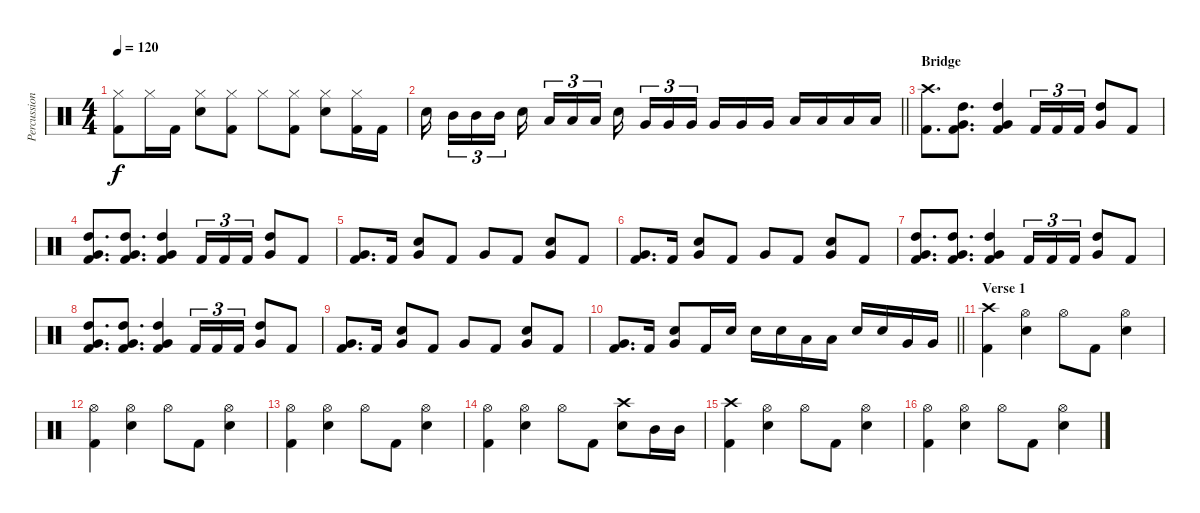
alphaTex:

\track ("Percussion" "Percussion") {instrument percussion}
\staff {score}
\articulation defaults
\ts (4 4)
\tempo 120
\clef neutral
\ks c
("Hi-Hat (closed)" "Kick (hit) 2").8{dy f} "Hi-Hat (closed)".16 "Kick (hit) 2".16 ("Hi-Hat (closed)" "Snare (hit) 2").8 ("Hi-Hat (closed)" "Kick (hit) 2").8 "Hi-Hat (closed)".8 ("Hi-Hat (closed)" "Kick (hit) 2").8 ("Hi-Hat (closed)" "Snare (hit) 2").8 ("Hi-Hat (closed)" "Kick (hit) 2").16 "Kick (hit) 2".16 |
\barLineRight lightlight "Snare (hit) 2".16{beam splitsecondary} "Mid Tom (hit)".16{tu (3 2)} "Mid Tom (hit)".16{tu (3 2)} "Mid Tom (hit)".16{tu (3 2) beam splitsecondary} "Snare (hit) 2".16 "Low Tom (hit)".16{tu (3 2)} "Low Tom (hit)".16{tu (3 2)} "Low Tom (hit)".16{tu (3 2) beam splitsecondary} "Snare (hit) 2".16{beam splitsecondary} "Very Low Tom (hit)".16{tu (3 2)} "Very Low Tom (hit)".16{tu (3 2)} "Very Low Tom (hit)".16{tu (3 2) beam splitsecondary} "Very Low Tom (hit)".16 "Very Low Tom (hit)".16 "Very Low Tom (hit)".16 "Low Floor Tom (hit)".16 "Low Floor Tom (hit)".16 "Low Floor Tom (hit)".16 "Low Floor Tom (hit)".16
|
\section ("" "Bridge")
("Crash high (hit)" "Kick (hit) 2").8{d} ("High Tom (hit)" "Very Low Tom (hit)" "Kick (hit) 2").8{d} ("High Tom (hit)" "Very Low Tom (hit)" "Kick (hit) 2").4 "Kick (hit) 2".16{tu (3 2)} "Kick (hit) 2".16{tu (3 2)} "Kick (hit) 2".16{tu (3 2)} ("High Tom (hit)" "Very Low Tom (hit)").8 "Kick (hit) 2".8 |
("High Tom (hit)" "Very Low Tom (hit)" "Kick (hit) 2").8{d} ("High Tom (hit)" "Very Low Tom (hit)" "Kick (hit) 2").8{d} ("High Tom (hit)" "Very Low Tom (hit)" "Kick (hit) 2").4 "Kick (hit) 2".16{tu (3 2)} "Kick (hit) 2".16{tu (3 2)} "Kick (hit) 2".16{tu (3 2)} ("High Tom (hit)" "Very Low Tom (hit)").8 "Kick (hit) 2".8 |
("Very Low Tom (hit)" "Kick (hit) 2").8{d} "Kick (hit) 2".16 ("Very Low Tom (hit)" "Snare (hit) 2").8 "Kick (hit) 2".8 "Very Low Tom (hit)".8 "Kick (hit) 2".8 ("Very Low Tom (hit)" "Snare (hit) 2").8 "Kick (hit) 2".8 |
("Very Low Tom (hit)" "Kick (hit) 2").8{d} "Kick (hit) 2".16 ("Very Low Tom (hit)" "Snare (hit) 2").8 "Kick (hit) 2".8 "Very Low Tom (hit)".8 "Kick (hit) 2".8 ("Very Low Tom (hit)" "Snare (hit) 2").8 "Kick (hit) 2".8 |
("High Tom (hit)" "Very Low Tom (hit)" "Kick (hit) 2").8{d} ("High Tom (hit)" "Very Low Tom (hit)" "Kick (hit) 2").8{d} ("High Tom (hit)" "Very Low Tom (hit)" "Kick (hit) 2").4 "Kick (hit) 2".16{tu (3 2)} "Kick (hit) 2".16{tu (3 2)} "Kick (hit) 2".16{tu (3 2)} ("High Tom (hit)" "Very Low Tom (hit)").8 "Kick (hit) 2".8 |
("High Tom (hit)" "Very Low Tom (hit)" "Kick (hit) 2").8{d} ("High Tom (hit)" "Very Low Tom (hit)" "Kick (hit) 2").8{d} ("High Tom (hit)" "Very Low Tom (hit)" "Kick (hit) 2").4 "Kick (hit) 2".16{tu (3 2)} "Kick (hit) 2".16{tu (3 2)} "Kick (hit) 2".16{tu (3 2)} ("High Tom (hit)" "Very Low Tom (hit)").8 "Kick (hit) 2".8 |
("Very Low Tom (hit)" "Kick (hit) 2").8{d} "Kick (hit) 2".16 ("Very Low Tom (hit)" "Snare (hit) 2").8 "Kick (hit) 2".8 "Very Low Tom (hit)".8 "Kick (hit) 2".8 ("Very Low Tom (hit)" "Snare (hit) 2").8 "Kick (hit) 2".8 |
\barLineRight lightlight
("Very Low Tom (hit)" "Kick (hit) 2").8{d} "Kick (hit) 2".16 ("Very Low Tom (hit)" "Snare (hit) 2").8 "Kick (hit) 2".16 "Snare (hit) 2".16 "Snare (hit) 2".16 "Snare (hit) 2".16 "Low Tom (hit)".16 "Low Tom (hit)".16 "Snare (hit) 2".16 "Snare (hit) 2".16 "Very Low Tom (hit)".16 "Very Low Tom (hit)".16 |
\section ("" "Verse 1")
("Crash high (hit)" "Kick (hit) 2").4 ("Hi-Hat (open)" "Snare (hit) 2").4 "Hi-Hat (open)".8 "Kick (hit) 2".8 ("Hi-Hat (open)" "Snare (hit) 2").4 |
("Hi-Hat (open)" "Kick (hit) 2").4 ("Hi-Hat (open)" "Snare (hit) 2").4 "Hi-Hat (open)".8 "Kick (hit) 2".8 ("Hi-Hat (open)" "Snare (hit) 2").4 |
("Hi-Hat (open)" "Kick (hit) 2").4 ("Hi-Hat (open)" "Snare (hit) 2").4 "Hi-Hat (open)".8 "Kick (hit) 2".8 ("Hi-Hat (open)" "Snare (hit) 2").4 |
("Hi-Hat (open)" "Kick (hit) 2").4 ("Hi-Hat (open)" "Snare (hit) 2").4 "Hi-Hat (open)".8 "Kick (hit) 2".8 ("Crash high (hit)" "Snare (hit) 2").8 "Mid Tom (hit)".16 "Mid Tom (hit)".16 |
("Crash high (hit)" "Kick (hit) 2").4 ("Hi-Hat (open)" "Snare (hit) 2").4 "Hi-Hat (open)".8 "Kick (hit) 2".8 ("Hi-Hat (open)" "Snare (hit) 2").4 |
("Hi-Hat (open)" "Kick (hit) 2").4 ("Hi-Hat (open)" "Snare (hit) 2").4 "Hi-Hat (open)".8 "Kick (hit) 2".8 ("Hi-Hat (open)" "Snare (hit) 2").4
